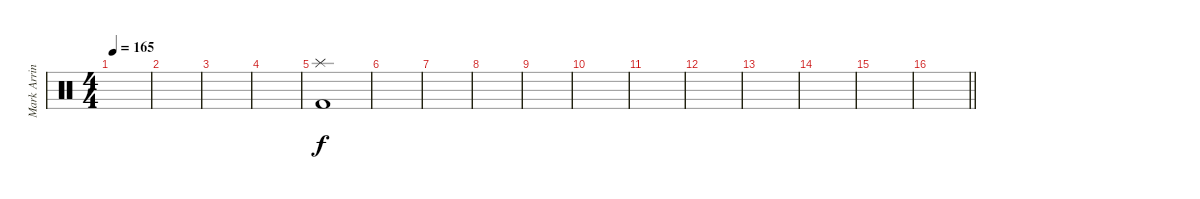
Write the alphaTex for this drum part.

\track ("Mark Arrington Drums" "Mark Arrin") {instrument percussion}
\staff {score}
\articulation defaults
\ts (4 4)
\tempo 165
\clef neutral
\ks c
|
|
|
|
("Splash (hit)" "Kick (hit) 2").1 |
|
|
|
|
|
|
|
|
|
|
\barLineRight lightlight
